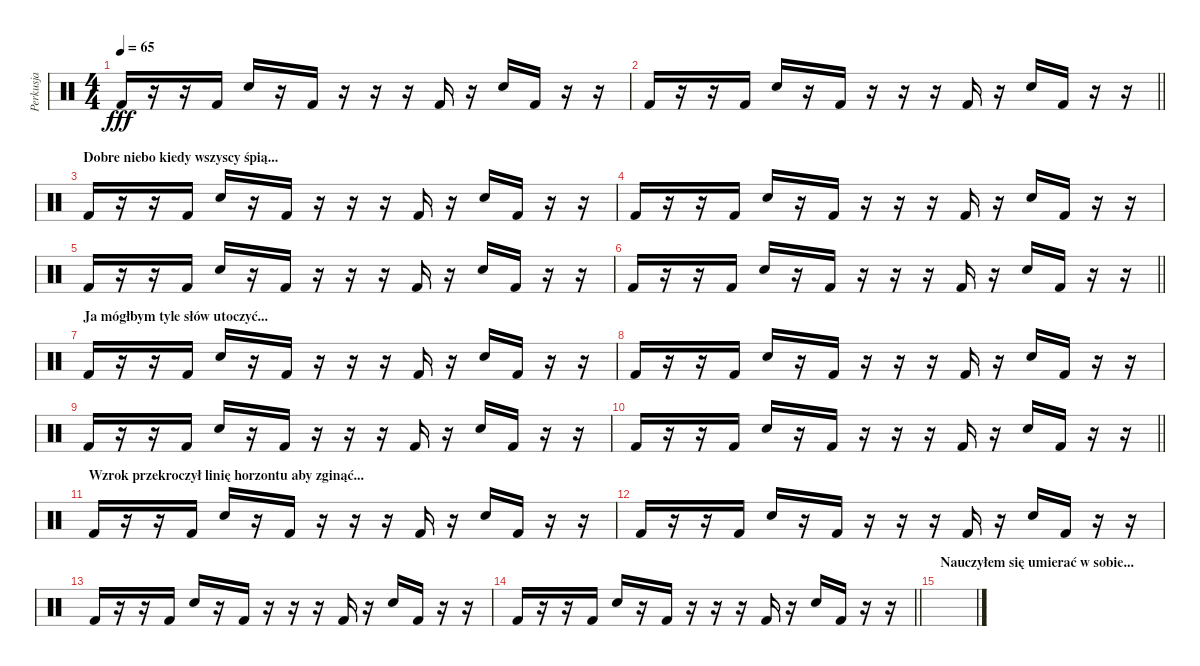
\track ("Perkusja" "Perkusja") {instrument percussion}
\staff {score}
\articulation defaults
\ts (4 4)
\tempo 65
\clef neutral
\ks c "Kick (hit) 2".16{dy fff}
r.16 r.16 "Kick (hit) 2".16 "Snare (hit) 2".16 r.16 "Kick (hit) 2".16 r.16 r.16 r.16 "Kick (hit) 2".16 r.16 "Snare (hit) 2".16 "Kick (hit) 2".16 r.16 r.16 |
\barLineRight lightlight "Kick (hit) 2".16
r.16 r.16 "Kick (hit) 2".16 "Snare (hit) 2".16 r.16 "Kick (hit) 2".16 r.16 r.16 r.16 "Kick (hit) 2".16 r.16 "Snare (hit) 2".16 "Kick (hit) 2".16 r.16 r.16 |
\section ("" "Dobre niebo kiedy wszyscy śpią...")
"Kick (hit) 2".16 r.16 r.16 "Kick (hit) 2".16 "Snare (hit) 2".16 r.16 "Kick (hit) 2".16 r.16 r.16 r.16 "Kick (hit) 2".16 r.16 "Snare (hit) 2".16 "Kick (hit) 2".16 r.16 r.16 |
"Kick (hit) 2".16 r.16 r.16 "Kick (hit) 2".16 "Snare (hit) 2".16 r.16 "Kick (hit) 2".16 r.16 r.16 r.16 "Kick (hit) 2".16 r.16 "Snare (hit) 2".16 "Kick (hit) 2".16 r.16 r.16 |
"Kick (hit) 2".16 r.16 r.16 "Kick (hit) 2".16 "Snare (hit) 2".16 r.16 "Kick (hit) 2".16 r.16 r.16 r.16 "Kick (hit) 2".16 r.16 "Snare (hit) 2".16 "Kick (hit) 2".16 r.16 r.16 |
\barLineRight lightlight "Kick (hit) 2".16
r.16 r.16 "Kick (hit) 2".16 "Snare (hit) 2".16 r.16 "Kick (hit) 2".16 r.16 r.16 r.16 "Kick (hit) 2".16 r.16 "Snare (hit) 2".16 "Kick (hit) 2".16 r.16 r.16 |
\section ("" "Ja mógłbym tyle słów utoczyć...")
"Kick (hit) 2".16 r.16 r.16 "Kick (hit) 2".16 "Snare (hit) 2".16 r.16 "Kick (hit) 2".16 r.16 r.16 r.16 "Kick (hit) 2".16 r.16 "Snare (hit) 2".16 "Kick (hit) 2".16 r.16 r.16 |
"Kick (hit) 2".16 r.16 r.16 "Kick (hit) 2".16 "Snare (hit) 2".16 r.16 "Kick (hit) 2".16 r.16 r.16 r.16 "Kick (hit) 2".16 r.16 "Snare (hit) 2".16 "Kick (hit) 2".16 r.16 r.16 |
"Kick (hit) 2".16 r.16 r.16 "Kick (hit) 2".16 "Snare (hit) 2".16 r.16 "Kick (hit) 2".16 r.16 r.16 r.16 "Kick (hit) 2".16 r.16 "Snare (hit) 2".16 "Kick (hit) 2".16 r.16 r.16 |
\barLineRight lightlight "Kick (hit) 2".16
r.16 r.16 "Kick (hit) 2".16 "Snare (hit) 2".16 r.16 "Kick (hit) 2".16 r.16 r.16 r.16 "Kick (hit) 2".16 r.16 "Snare (hit) 2".16 "Kick (hit) 2".16 r.16 r.16 |
\section ("" "Wzrok przekroczył linię horzontu aby zginąć...")
"Kick (hit) 2".16 r.16 r.16 "Kick (hit) 2".16 "Snare (hit) 2".16 r.16 "Kick (hit) 2".16 r.16 r.16 r.16 "Kick (hit) 2".16 r.16 "Snare (hit) 2".16 "Kick (hit) 2".16 r.16 r.16 |
"Kick (hit) 2".16 r.16 r.16 "Kick (hit) 2".16 "Snare (hit) 2".16 r.16 "Kick (hit) 2".16 r.16 r.16 r.16 "Kick (hit) 2".16 r.16 "Snare (hit) 2".16 "Kick (hit) 2".16 r.16 r.16 |
"Kick (hit) 2".16 r.16 r.16 "Kick (hit) 2".16 "Snare (hit) 2".16 r.16 "Kick (hit) 2".16 r.16 r.16 r.16 "Kick (hit) 2".16 r.16 "Snare (hit) 2".16 "Kick (hit) 2".16 r.16 r.16 |
\barLineRight lightlight "Kick (hit) 2".16
r.16 r.16 "Kick (hit) 2".16 "Snare (hit) 2".16 r.16 "Kick (hit) 2".16 r.16 r.16 r.16 "Kick (hit) 2".16 r.16 "Snare (hit) 2".16 "Kick (hit) 2".16 r.16 r.16 |
\section ("" "Nauczyłem się umierać w sobie...")
